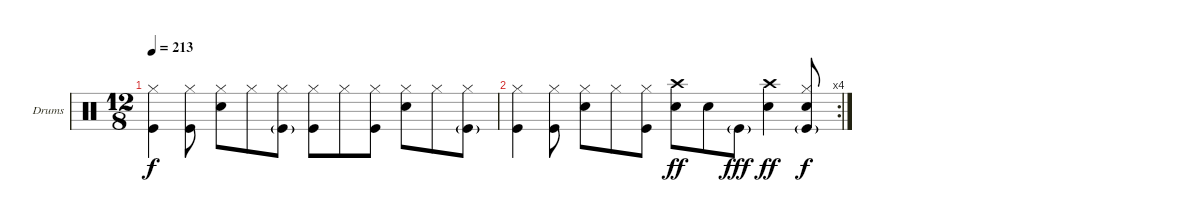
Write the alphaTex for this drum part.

\bracketExtendMode groupsimilarinstruments
\firstSystemTrackNameOrientation horizontal
\otherSystemsTrackNameOrientation horizontal
\track ("Drumkit" "Drums") {instrument percussion}
\staff {score}
\articulation defaults
\ts (12 8)
\tempo 213
\clef neutral
\ks c
("Kick (hit)" "Hi-Hat (closed)").4{dy f} ("Kick (hit)" "Hi-Hat (closed)").8 ("Snare (hit) 2" "Hi-Hat (closed)").8 "Hi-Hat (closed)".8 ("Hi-Hat (closed)" "Kick (hit)"{g}).8 ("Kick (hit)" "Hi-Hat (closed)").8 "Hi-Hat (closed)".8 ("Hi-Hat (closed)" "Kick (hit)").8 ("Snare (hit) 2" "Hi-Hat (closed)").8 "Hi-Hat (closed)".8 ("Hi-Hat (closed)" "Kick (hit)"{g}).8 |
\rc 4
("Kick (hit)" "Hi-Hat (closed)").4 ("Kick (hit)" "Hi-Hat (closed)").8 ("Snare (hit) 2" "Hi-Hat (closed)").8 "Hi-Hat (closed)".8 ("Hi-Hat (closed)" "Kick (hit)").8 ("Snare (hit) 2" "Crash high (hit)").8{dy ff} "Snare (hit) 2".8 "Kick (hit)"{g}.8{dy fff} ("Snare (hit) 2" "Crash high (hit)").4{dy ff} ("Snare (hit) 2" "Kick (hit)"{g} "Hi-Hat (closed)").8{dy f}
